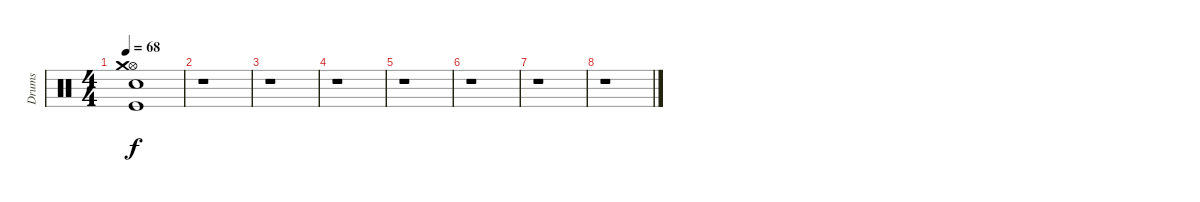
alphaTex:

\track ("Drums" "Drums") {instrument percussion}
\staff {score}
\articulation defaults
\ts (4 4)
\tempo 68
\clef neutral
\ks c
("Snare (hit) 2" "Hi-Hat (open)" "Kick (hit)" "Crash medium (hit)").1{dy f} |
r.1 |
r.1 |
r.1 |
r.1 |
r.1 |
r.1 |
r.1
